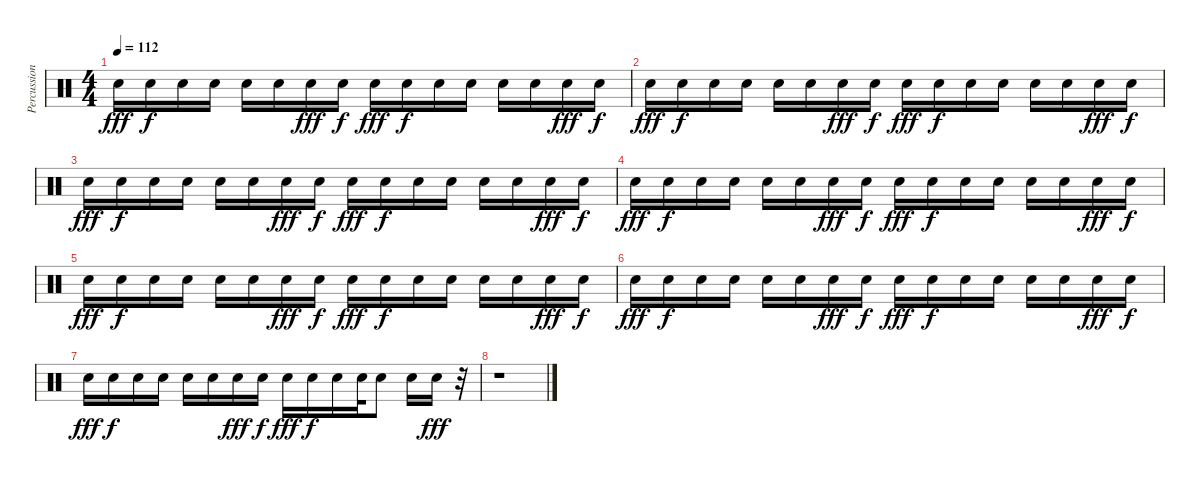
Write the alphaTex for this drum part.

\track ("Percussions" "Percussion") {instrument percussion}
\staff {score}
\articulation defaults
\ts (4 4)
\tempo 112
\clef neutral
\ks c "Electric Snare (hit)".16{dy fff} "Electric Snare (hit)".16{dy f} "Electric Snare (hit)".16 "Electric Snare (hit)".16 "Electric Snare (hit)".16 "Electric Snare (hit)".16 "Electric Snare (hit)".16{dy fff} "Electric Snare (hit)".16{dy f} "Electric Snare (hit)".16{dy fff} "Electric Snare (hit)".16{dy f} "Electric Snare (hit)".16 "Electric Snare (hit)".16 "Electric Snare (hit)".16 "Electric Snare (hit)".16 "Electric Snare (hit)".16{dy fff} "Electric Snare (hit)".16{dy f}
|
"Electric Snare (hit)".16{dy fff} "Electric Snare (hit)".16{dy f} "Electric Snare (hit)".16 "Electric Snare (hit)".16 "Electric Snare (hit)".16 "Electric Snare (hit)".16 "Electric Snare (hit)".16{dy fff} "Electric Snare (hit)".16{dy f} "Electric Snare (hit)".16{dy fff} "Electric Snare (hit)".16{dy f} "Electric Snare (hit)".16 "Electric Snare (hit)".16 "Electric Snare (hit)".16 "Electric Snare (hit)".16 "Electric Snare (hit)".16{dy fff} "Electric Snare (hit)".16{dy f} |
"Electric Snare (hit)".16{dy fff} "Electric Snare (hit)".16{dy f} "Electric Snare (hit)".16 "Electric Snare (hit)".16 "Electric Snare (hit)".16 "Electric Snare (hit)".16 "Electric Snare (hit)".16{dy fff} "Electric Snare (hit)".16{dy f} "Electric Snare (hit)".16{dy fff} "Electric Snare (hit)".16{dy f} "Electric Snare (hit)".16 "Electric Snare (hit)".16 "Electric Snare (hit)".16 "Electric Snare (hit)".16 "Electric Snare (hit)".16{dy fff} "Electric Snare (hit)".16{dy f} |
"Electric Snare (hit)".16{dy fff} "Electric Snare (hit)".16{dy f} "Electric Snare (hit)".16 "Electric Snare (hit)".16 "Electric Snare (hit)".16 "Electric Snare (hit)".16 "Electric Snare (hit)".16{dy fff} "Electric Snare (hit)".16{dy f} "Electric Snare (hit)".16{dy fff} "Electric Snare (hit)".16{dy f} "Electric Snare (hit)".16 "Electric Snare (hit)".16 "Electric Snare (hit)".16 "Electric Snare (hit)".16 "Electric Snare (hit)".16{dy fff} "Electric Snare (hit)".16{dy f} |
"Electric Snare (hit)".16{dy fff} "Electric Snare (hit)".16{dy f} "Electric Snare (hit)".16 "Electric Snare (hit)".16 "Electric Snare (hit)".16 "Electric Snare (hit)".16 "Electric Snare (hit)".16{dy fff} "Electric Snare (hit)".16{dy f} "Electric Snare (hit)".16{dy fff} "Electric Snare (hit)".16{dy f} "Electric Snare (hit)".16 "Electric Snare (hit)".16 "Electric Snare (hit)".16 "Electric Snare (hit)".16 "Electric Snare (hit)".16{dy fff} "Electric Snare (hit)".16{dy f} |
"Electric Snare (hit)".16{dy fff} "Electric Snare (hit)".16{dy f} "Electric Snare (hit)".16 "Electric Snare (hit)".16 "Electric Snare (hit)".16 "Electric Snare (hit)".16 "Electric Snare (hit)".16{dy fff} "Electric Snare (hit)".16{dy f} "Electric Snare (hit)".16{dy fff} "Electric Snare (hit)".16{dy f} "Electric Snare (hit)".16 "Electric Snare (hit)".16 "Electric Snare (hit)".16 "Electric Snare (hit)".16 "Electric Snare (hit)".16{dy fff} "Electric Snare (hit)".16{dy f} |
"Electric Snare (hit)".16{dy fff} "Electric Snare (hit)".16{dy f} "Electric Snare (hit)".16 "Electric Snare (hit)".16 "Electric Snare (hit)".16 "Electric Snare (hit)".16 "Electric Snare (hit)".16{dy fff} "Electric Snare (hit)".16{dy f} "Electric Snare (hit)".16{dy fff} "Electric Snare (hit)".16{dy f} "Electric Snare (hit)".16 "Electric Snare (hit)".32 "Electric Snare (hit)".8 "Electric Snare (hit)".16 "Electric Snare (hit)".16{dy fff} r.32 |
r.1
